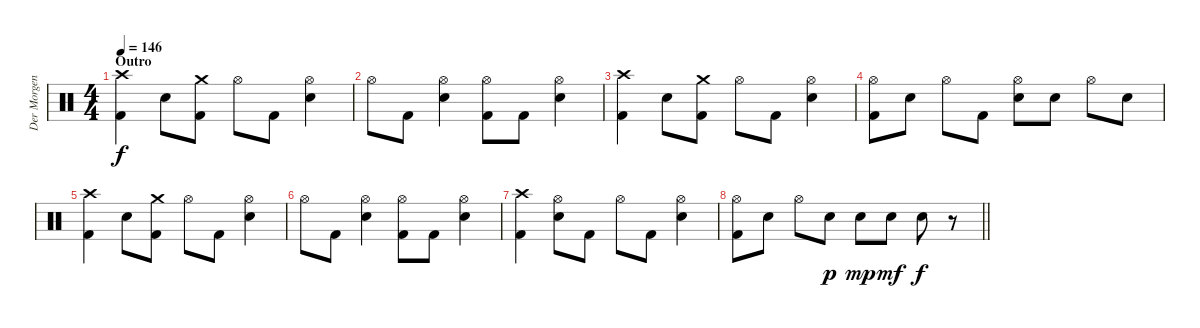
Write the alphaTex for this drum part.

\track ("Der Morgenstern" "Der Morgen") {instrument percussion}
\staff {score}
\articulation defaults
\ts (4 4)
\section ("" "Outro")
\tempo 146
\clef neutral
\ks c
("Crash high (hit)" "Kick (hit) 2").4{dy f} "Electric Snare (hit)".8 ("Crash medium (hit)" "Kick (hit) 2").8 "Hi-Hat (open)".8 "Kick (hit) 2".8 ("Hi-Hat (open)" "Electric Snare (hit)").4 |
"Hi-Hat (open)".8 "Kick (hit) 2".8 ("Hi-Hat (open)" "Electric Snare (hit)").4 ("Hi-Hat (open)" "Kick (hit) 2").8 "Kick (hit) 2".8 ("Hi-Hat (open)" "Electric Snare (hit)").4 |
("Crash high (hit)" "Kick (hit) 2").4 "Electric Snare (hit)".8 ("Crash medium (hit)" "Kick (hit) 2").8 "Hi-Hat (open)".8 "Kick (hit) 2".8 ("Hi-Hat (open)" "Electric Snare (hit)").4 |
("Hi-Hat (open)" "Kick (hit) 2").8 "Electric Snare (hit)".8 "Hi-Hat (open)".8 "Kick (hit) 2".8 ("Hi-Hat (open)" "Electric Snare (hit)").8 "Electric Snare (hit)".8 "Hi-Hat (open)".8 "Electric Snare (hit)".8 |
("Crash high (hit)" "Kick (hit) 2").4 "Electric Snare (hit)".8 ("Crash medium (hit)" "Kick (hit) 2").8 "Hi-Hat (open)".8 "Kick (hit) 2".8 ("Hi-Hat (open)" "Electric Snare (hit)").4 |
"Hi-Hat (open)".8 "Kick (hit) 2".8 ("Hi-Hat (open)" "Electric Snare (hit)").4 ("Hi-Hat (open)" "Kick (hit) 2").8 "Kick (hit) 2".8 ("Hi-Hat (open)" "Electric Snare (hit)").4 |
("Crash high (hit)" "Kick (hit) 2").4 ("Hi-Hat (open)" "Electric Snare (hit)").8 "Kick (hit) 2".8 "Hi-Hat (open)".8 "Kick (hit) 2".8 ("Hi-Hat (open)" "Electric Snare (hit)").4 |
\barLineRight lightlight
("Hi-Hat (open)" "Kick (hit) 2").8 "Electric Snare (hit)".8 "Hi-Hat (open)".8 "Electric Snare (hit)".8{dy p} "Electric Snare (hit)".8{dy mp} "Electric Snare (hit)".8{dy mf} "Electric Snare (hit)".8{dy f} r.8
